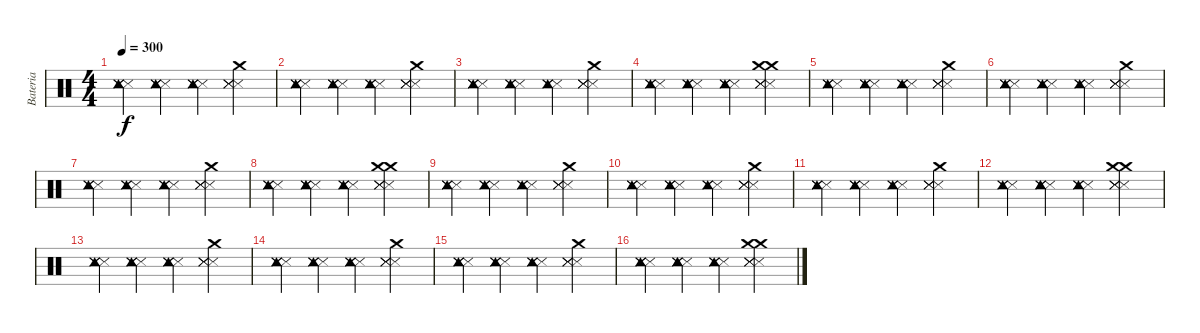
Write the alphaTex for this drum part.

\track ("Bateria" "Bateria") {instrument percussion}
\staff {score}
\articulation defaults
\ts (4 4)
\tempo 300
\clef neutral
\ks c
("Snare (side stick) 3" "Snare (side stick) 3" "Snare (side stick) 3" "Snare (side stick) 3" "Tambourine (hit)").4{dy f} ("Snare (side stick) 3" "Snare (side stick) 3" "Snare (side stick) 3" "Snare (side stick) 3" "Tambourine (hit)").4 ("Snare (side stick) 3" "Snare (side stick) 3" "Snare (side stick) 3" "Snare (side stick) 3" "Tambourine (hit)").4 ("Snare (side stick) 3" "Snare (side stick) 3" "Snare (side stick) 3" "Snare (side stick) 3" "Crash medium (hit)").4 |
("Snare (side stick) 3" "Snare (side stick) 3" "Snare (side stick) 3" "Snare (side stick) 3" "Tambourine (hit)").4 ("Snare (side stick) 3" "Snare (side stick) 3" "Snare (side stick) 3" "Snare (side stick) 3" "Tambourine (hit)").4 ("Snare (side stick) 3" "Snare (side stick) 3" "Snare (side stick) 3" "Snare (side stick) 3" "Tambourine (hit)").4 ("Snare (side stick) 3" "Snare (side stick) 3" "Snare (side stick) 3" "Snare (side stick) 3" "Crash medium (hit)").4 |
("Snare (side stick) 3" "Snare (side stick) 3" "Snare (side stick) 3" "Snare (side stick) 3" "Tambourine (hit)").4 ("Snare (side stick) 3" "Snare (side stick) 3" "Snare (side stick) 3" "Snare (side stick) 3" "Tambourine (hit)").4 ("Snare (side stick) 3" "Snare (side stick) 3" "Snare (side stick) 3" "Snare (side stick) 3" "Tambourine (hit)").4 ("Snare (side stick) 3" "Snare (side stick) 3" "Snare (side stick) 3" "Snare (side stick) 3" "Crash medium (hit)").4 |
("Snare (side stick) 3" "Snare (side stick) 3" "Snare (side stick) 3" "Snare (side stick) 3" "Tambourine (hit)").4 ("Snare (side stick) 3" "Snare (side stick) 3" "Snare (side stick) 3" "Snare (side stick) 3" "Tambourine (hit)" "Tambourine (hit)").4 ("Snare (side stick) 3" "Snare (side stick) 3" "Snare (side stick) 3" "Snare (side stick) 3" "Tambourine (hit)").4 ("Snare (side stick) 3" "Snare (side stick) 3" "Snare (side stick) 3" "Snare (side stick) 3" "Crash medium (hit)" "Crash medium (hit)").4 |
("Snare (side stick) 3" "Snare (side stick) 3" "Snare (side stick) 3" "Snare (side stick) 3" "Tambourine (hit)").4 ("Snare (side stick) 3" "Snare (side stick) 3" "Snare (side stick) 3" "Snare (side stick) 3" "Tambourine (hit)").4 ("Snare (side stick) 3" "Snare (side stick) 3" "Snare (side stick) 3" "Snare (side stick) 3" "Tambourine (hit)").4 ("Snare (side stick) 3" "Snare (side stick) 3" "Snare (side stick) 3" "Snare (side stick) 3" "Crash medium (hit)").4 |
("Snare (side stick) 3" "Snare (side stick) 3" "Snare (side stick) 3" "Snare (side stick) 3" "Tambourine (hit)").4 ("Snare (side stick) 3" "Snare (side stick) 3" "Snare (side stick) 3" "Snare (side stick) 3" "Tambourine (hit)").4 ("Snare (side stick) 3" "Snare (side stick) 3" "Snare (side stick) 3" "Snare (side stick) 3" "Tambourine (hit)").4 ("Snare (side stick) 3" "Snare (side stick) 3" "Snare (side stick) 3" "Snare (side stick) 3" "Crash medium (hit)").4 |
("Snare (side stick) 3" "Snare (side stick) 3" "Snare (side stick) 3" "Snare (side stick) 3" "Tambourine (hit)").4 ("Snare (side stick) 3" "Snare (side stick) 3" "Snare (side stick) 3" "Snare (side stick) 3" "Tambourine (hit)").4 ("Snare (side stick) 3" "Snare (side stick) 3" "Snare (side stick) 3" "Snare (side stick) 3" "Tambourine (hit)").4 ("Snare (side stick) 3" "Snare (side stick) 3" "Snare (side stick) 3" "Snare (side stick) 3" "Crash medium (hit)").4 |
("Snare (side stick) 3" "Snare (side stick) 3" "Snare (side stick) 3" "Snare (side stick) 3" "Tambourine (hit)").4 ("Snare (side stick) 3" "Snare (side stick) 3" "Snare (side stick) 3" "Snare (side stick) 3" "Tambourine (hit)" "Tambourine (hit)").4 ("Snare (side stick) 3" "Snare (side stick) 3" "Snare (side stick) 3" "Snare (side stick) 3" "Tambourine (hit)").4 ("Snare (side stick) 3" "Snare (side stick) 3" "Snare (side stick) 3" "Snare (side stick) 3" "Crash medium (hit)" "Crash medium (hit)").4 |
("Snare (side stick) 3" "Snare (side stick) 3" "Snare (side stick) 3" "Snare (side stick) 3" "Tambourine (hit)").4 ("Snare (side stick) 3" "Snare (side stick) 3" "Snare (side stick) 3" "Snare (side stick) 3" "Tambourine (hit)").4 ("Snare (side stick) 3" "Snare (side stick) 3" "Snare (side stick) 3" "Snare (side stick) 3" "Tambourine (hit)").4 ("Snare (side stick) 3" "Snare (side stick) 3" "Snare (side stick) 3" "Snare (side stick) 3" "Crash medium (hit)").4 |
("Snare (side stick) 3" "Snare (side stick) 3" "Snare (side stick) 3" "Snare (side stick) 3" "Tambourine (hit)").4 ("Snare (side stick) 3" "Snare (side stick) 3" "Snare (side stick) 3" "Snare (side stick) 3" "Tambourine (hit)").4 ("Snare (side stick) 3" "Snare (side stick) 3" "Snare (side stick) 3" "Snare (side stick) 3" "Tambourine (hit)").4 ("Snare (side stick) 3" "Snare (side stick) 3" "Snare (side stick) 3" "Snare (side stick) 3" "Crash medium (hit)").4 |
("Snare (side stick) 3" "Snare (side stick) 3" "Snare (side stick) 3" "Snare (side stick) 3" "Tambourine (hit)").4 ("Snare (side stick) 3" "Snare (side stick) 3" "Snare (side stick) 3" "Snare (side stick) 3" "Tambourine (hit)").4 ("Snare (side stick) 3" "Snare (side stick) 3" "Snare (side stick) 3" "Snare (side stick) 3" "Tambourine (hit)").4 ("Snare (side stick) 3" "Snare (side stick) 3" "Snare (side stick) 3" "Snare (side stick) 3" "Crash medium (hit)").4 |
("Snare (side stick) 3" "Snare (side stick) 3" "Snare (side stick) 3" "Snare (side stick) 3" "Tambourine (hit)").4 ("Snare (side stick) 3" "Snare (side stick) 3" "Snare (side stick) 3" "Snare (side stick) 3" "Tambourine (hit)" "Tambourine (hit)").4 ("Snare (side stick) 3" "Snare (side stick) 3" "Snare (side stick) 3" "Snare (side stick) 3" "Tambourine (hit)").4 ("Snare (side stick) 3" "Snare (side stick) 3" "Snare (side stick) 3" "Snare (side stick) 3" "Crash medium (hit)" "Crash medium (hit)").4 |
("Snare (side stick) 3" "Snare (side stick) 3" "Snare (side stick) 3" "Snare (side stick) 3" "Tambourine (hit)").4 ("Snare (side stick) 3" "Snare (side stick) 3" "Snare (side stick) 3" "Snare (side stick) 3" "Tambourine (hit)").4 ("Snare (side stick) 3" "Snare (side stick) 3" "Snare (side stick) 3" "Snare (side stick) 3" "Tambourine (hit)").4 ("Snare (side stick) 3" "Snare (side stick) 3" "Snare (side stick) 3" "Snare (side stick) 3" "Crash medium (hit)").4 |
("Snare (side stick) 3" "Snare (side stick) 3" "Snare (side stick) 3" "Snare (side stick) 3" "Tambourine (hit)").4 ("Snare (side stick) 3" "Snare (side stick) 3" "Snare (side stick) 3" "Snare (side stick) 3" "Tambourine (hit)").4 ("Snare (side stick) 3" "Snare (side stick) 3" "Snare (side stick) 3" "Snare (side stick) 3" "Tambourine (hit)").4 ("Snare (side stick) 3" "Snare (side stick) 3" "Snare (side stick) 3" "Snare (side stick) 3" "Crash medium (hit)").4 |
("Snare (side stick) 3" "Snare (side stick) 3" "Snare (side stick) 3" "Snare (side stick) 3" "Tambourine (hit)").4 ("Snare (side stick) 3" "Snare (side stick) 3" "Snare (side stick) 3" "Snare (side stick) 3" "Tambourine (hit)").4 ("Snare (side stick) 3" "Snare (side stick) 3" "Snare (side stick) 3" "Snare (side stick) 3" "Tambourine (hit)").4 ("Snare (side stick) 3" "Snare (side stick) 3" "Snare (side stick) 3" "Snare (side stick) 3" "Crash medium (hit)").4 |
("Snare (side stick) 3" "Snare (side stick) 3" "Snare (side stick) 3" "Snare (side stick) 3" "Tambourine (hit)").4 ("Snare (side stick) 3" "Snare (side stick) 3" "Snare (side stick) 3" "Snare (side stick) 3" "Tambourine (hit)" "Tambourine (hit)").4 ("Snare (side stick) 3" "Snare (side stick) 3" "Snare (side stick) 3" "Snare (side stick) 3" "Tambourine (hit)").4 ("Snare (side stick) 3" "Snare (side stick) 3" "Snare (side stick) 3" "Snare (side stick) 3" "Crash medium (hit)" "Crash medium (hit)").4
